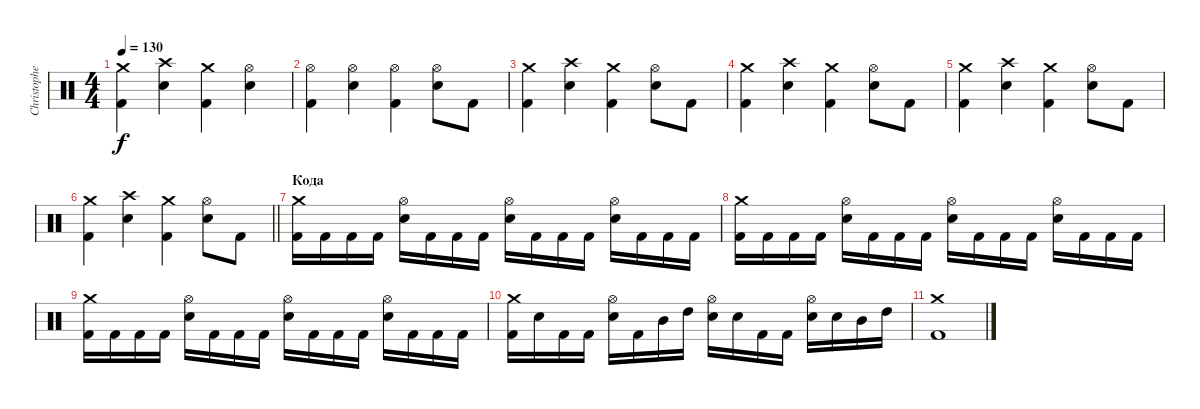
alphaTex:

\track ("Christopher Schneider" "Christophe") {instrument percussion}
\staff {score}
\articulation defaults
\ts (4 4)
\tempo 130
\clef neutral
\ks c
("Crash medium (hit)" "Kick (hit) 2").4{dy f} ("Crash high (hit)" "Electric Snare (hit)").4 ("Crash medium (hit)" "Kick (hit) 2").4 ("Hi-Hat (open)" "Electric Snare (hit)").4 |
("Hi-Hat (open)" "Kick (hit) 2").4 ("Hi-Hat (open)" "Electric Snare (hit)").4 ("Hi-Hat (open)" "Kick (hit) 2").4 ("Hi-Hat (open)" "Electric Snare (hit)").8 "Kick (hit) 2".8 |
("Crash medium (hit)" "Kick (hit) 2").4 ("Crash high (hit)" "Electric Snare (hit)").4 ("Crash medium (hit)" "Kick (hit) 2").4 ("Hi-Hat (open)" "Electric Snare (hit)").8 "Kick (hit) 2".8 |
("Crash medium (hit)" "Kick (hit) 2").4 ("Crash high (hit)" "Electric Snare (hit)").4 ("Crash medium (hit)" "Kick (hit) 2").4 ("Hi-Hat (open)" "Electric Snare (hit)").8 "Kick (hit) 2".8 |
("Crash medium (hit)" "Kick (hit) 2").4 ("Crash high (hit)" "Electric Snare (hit)").4 ("Crash medium (hit)" "Kick (hit) 2").4 ("Hi-Hat (open)" "Electric Snare (hit)").8 "Kick (hit) 2".8 |
\barLineRight lightlight
("Crash medium (hit)" "Kick (hit) 2").4 ("Crash high (hit)" "Electric Snare (hit)").4 ("Crash medium (hit)" "Kick (hit) 2").4 ("Hi-Hat (open)" "Electric Snare (hit)").8 "Kick (hit) 2".8 |
\section ("" "Кода")
("Crash medium (hit)" "Kick (hit) 2").16 "Kick (hit) 2".16 "Kick (hit) 2".16 "Kick (hit) 2".16 ("Hi-Hat (open)" "Electric Snare (hit)").16 "Kick (hit) 2".16 "Kick (hit) 2".16 "Kick (hit) 2".16 ("Hi-Hat (open)" "Electric Snare (hit)").16 "Kick (hit) 2".16 "Kick (hit) 2".16 "Kick (hit) 2".16 ("Hi-Hat (open)" "Electric Snare (hit)").16 "Kick (hit) 2".16 "Kick (hit) 2".16 "Kick (hit) 2".16 |
("Crash medium (hit)" "Kick (hit) 2").16 "Kick (hit) 2".16 "Kick (hit) 2".16 "Kick (hit) 2".16 ("Hi-Hat (open)" "Electric Snare (hit)").16 "Kick (hit) 2".16 "Kick (hit) 2".16 "Kick (hit) 2".16 ("Hi-Hat (open)" "Electric Snare (hit)").16 "Kick (hit) 2".16 "Kick (hit) 2".16 "Kick (hit) 2".16 ("Hi-Hat (open)" "Electric Snare (hit)").16 "Kick (hit) 2".16 "Kick (hit) 2".16 "Kick (hit) 2".16 |
("Crash medium (hit)" "Kick (hit) 2").16 "Kick (hit) 2".16 "Kick (hit) 2".16 "Kick (hit) 2".16 ("Hi-Hat (open)" "Electric Snare (hit)").16 "Kick (hit) 2".16 "Kick (hit) 2".16 "Kick (hit) 2".16 ("Hi-Hat (open)" "Electric Snare (hit)").16 "Kick (hit) 2".16 "Kick (hit) 2".16 "Kick (hit) 2".16 ("Hi-Hat (open)" "Electric Snare (hit)").16 "Kick (hit) 2".16 "Kick (hit) 2".16 "Kick (hit) 2".16 |
("Crash medium (hit)" "Kick (hit) 2").16 "Electric Snare (hit)".16 "Kick (hit) 2".16 "Kick (hit) 2".16 ("Hi-Hat (open)" "Electric Snare (hit)").16 "Kick (hit) 2".16 "Mid Tom (hit)".16 "High Tom (hit)".16 ("Hi-Hat (open)" "Electric Snare (hit)").16 "Electric Snare (hit)".16 "Kick (hit) 2".16 "Kick (hit) 2".16 ("Hi-Hat (open)" "Electric Snare (hit)").16 "Electric Snare (hit)".16 "Mid Tom (hit)".16 "High Tom (hit)".16 |
("Kick (hit) 2" "Crash medium (hit)").1
